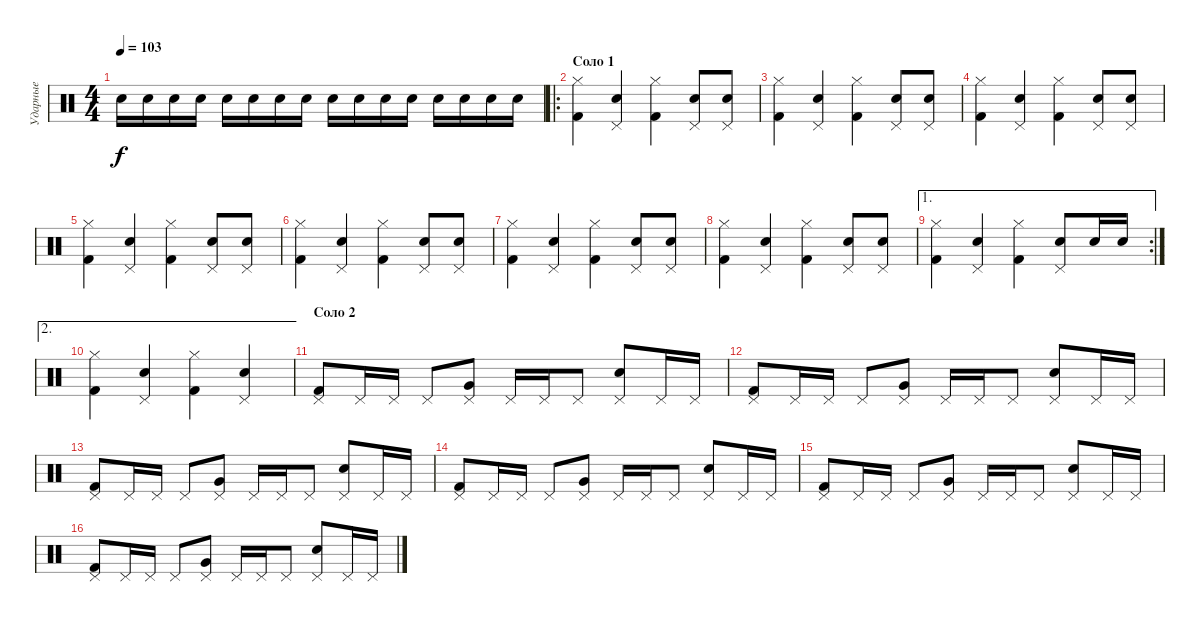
\track ("Ударные" "Ударные") {instrument percussion}
\staff {score}
\articulation defaults
\ts (4 4)
\tempo 103
\clef neutral
\ks c "Snare (hit) 2".16{dy f} "Snare (hit) 2".16 "Snare (hit) 2".16 "Snare (hit) 2".16 "Snare (hit) 2".16 "Snare (hit) 2".16 "Snare (hit) 2".16 "Snare (hit) 2".16 "Snare (hit) 2".16 "Snare (hit) 2".16 "Snare (hit) 2".16 "Snare (hit) 2".16 "Snare (hit) 2".16 "Snare (hit) 2".16 "Snare (hit) 2".16 "Snare (hit) 2".16
|
\ro
\section ("" "Соло 1")
("Hi-Hat (closed)" "Kick (hit) 2").4 ("Pedal Hi-Hat (hit)" "Snare (hit) 2").4 ("Hi-Hat (closed)" "Kick (hit) 2").4 ("Pedal Hi-Hat (hit)" "Snare (hit) 2").8 ("Pedal Hi-Hat (hit)" "Snare (hit) 2").8 |
("Hi-Hat (closed)" "Kick (hit) 2").4 ("Pedal Hi-Hat (hit)" "Snare (hit) 2").4 ("Hi-Hat (closed)" "Kick (hit) 2").4 ("Pedal Hi-Hat (hit)" "Snare (hit) 2").8 ("Pedal Hi-Hat (hit)" "Snare (hit) 2").8 |
("Hi-Hat (closed)" "Kick (hit) 2").4 ("Pedal Hi-Hat (hit)" "Snare (hit) 2").4 ("Hi-Hat (closed)" "Kick (hit) 2").4 ("Pedal Hi-Hat (hit)" "Snare (hit) 2").8 ("Pedal Hi-Hat (hit)" "Snare (hit) 2").8 |
("Hi-Hat (closed)" "Kick (hit) 2").4 ("Pedal Hi-Hat (hit)" "Snare (hit) 2").4 ("Hi-Hat (closed)" "Kick (hit) 2").4 ("Pedal Hi-Hat (hit)" "Snare (hit) 2").8 ("Pedal Hi-Hat (hit)" "Snare (hit) 2").8 |
("Hi-Hat (closed)" "Kick (hit) 2").4 ("Pedal Hi-Hat (hit)" "Snare (hit) 2").4 ("Hi-Hat (closed)" "Kick (hit) 2").4 ("Pedal Hi-Hat (hit)" "Snare (hit) 2").8 ("Pedal Hi-Hat (hit)" "Snare (hit) 2").8 |
("Hi-Hat (closed)" "Kick (hit) 2").4 ("Pedal Hi-Hat (hit)" "Snare (hit) 2").4 ("Hi-Hat (closed)" "Kick (hit) 2").4 ("Pedal Hi-Hat (hit)" "Snare (hit) 2").8 ("Pedal Hi-Hat (hit)" "Snare (hit) 2").8 |
("Hi-Hat (closed)" "Kick (hit) 2").4 ("Pedal Hi-Hat (hit)" "Snare (hit) 2").4 ("Hi-Hat (closed)" "Kick (hit) 2").4 ("Pedal Hi-Hat (hit)" "Snare (hit) 2").8 ("Pedal Hi-Hat (hit)" "Snare (hit) 2").8 |
\ae 1
\rc 2
("Hi-Hat (closed)" "Kick (hit) 2").4 ("Pedal Hi-Hat (hit)" "Snare (hit) 2").4 ("Hi-Hat (closed)" "Kick (hit) 2").4 ("Pedal Hi-Hat (hit)" "Snare (hit) 2").8 "Snare (hit) 2".16 "Snare (hit) 2".16 |
\ae 2
("Hi-Hat (closed)" "Kick (hit) 2").4 ("Pedal Hi-Hat (hit)" "Snare (hit) 2").4 ("Hi-Hat (closed)" "Kick (hit) 2").4 ("Pedal Hi-Hat (hit)" "Snare (hit) 2").4 |
\section ("" "Соло 2")
("Pedal Hi-Hat (hit)" "Kick (hit) 2").8 "Pedal Hi-Hat (hit)".16 "Pedal Hi-Hat (hit)".16 "Pedal Hi-Hat (hit)".8 ("Pedal Hi-Hat (hit)" "Very Low Tom (hit)").8 "Pedal Hi-Hat (hit)".16 "Pedal Hi-Hat (hit)".16 "Pedal Hi-Hat (hit)".8 ("Pedal Hi-Hat (hit)" "Snare (hit) 2").8 "Pedal Hi-Hat (hit)".16 "Pedal Hi-Hat (hit)".16 |
("Pedal Hi-Hat (hit)" "Kick (hit) 2").8 "Pedal Hi-Hat (hit)".16 "Pedal Hi-Hat (hit)".16 "Pedal Hi-Hat (hit)".8 ("Pedal Hi-Hat (hit)" "Very Low Tom (hit)").8 "Pedal Hi-Hat (hit)".16 "Pedal Hi-Hat (hit)".16 "Pedal Hi-Hat (hit)".8 ("Pedal Hi-Hat (hit)" "Snare (hit) 2").8 "Pedal Hi-Hat (hit)".16 "Pedal Hi-Hat (hit)".16 |
("Pedal Hi-Hat (hit)" "Kick (hit) 2").8 "Pedal Hi-Hat (hit)".16 "Pedal Hi-Hat (hit)".16 "Pedal Hi-Hat (hit)".8 ("Pedal Hi-Hat (hit)" "Very Low Tom (hit)").8 "Pedal Hi-Hat (hit)".16 "Pedal Hi-Hat (hit)".16 "Pedal Hi-Hat (hit)".8 ("Pedal Hi-Hat (hit)" "Snare (hit) 2").8 "Pedal Hi-Hat (hit)".16 "Pedal Hi-Hat (hit)".16 |
("Pedal Hi-Hat (hit)" "Kick (hit) 2").8 "Pedal Hi-Hat (hit)".16 "Pedal Hi-Hat (hit)".16 "Pedal Hi-Hat (hit)".8 ("Pedal Hi-Hat (hit)" "Very Low Tom (hit)").8 "Pedal Hi-Hat (hit)".16 "Pedal Hi-Hat (hit)".16 "Pedal Hi-Hat (hit)".8 ("Pedal Hi-Hat (hit)" "Snare (hit) 2").8 "Pedal Hi-Hat (hit)".16 "Pedal Hi-Hat (hit)".16 |
("Pedal Hi-Hat (hit)" "Kick (hit) 2").8 "Pedal Hi-Hat (hit)".16 "Pedal Hi-Hat (hit)".16 "Pedal Hi-Hat (hit)".8 ("Pedal Hi-Hat (hit)" "Very Low Tom (hit)").8 "Pedal Hi-Hat (hit)".16 "Pedal Hi-Hat (hit)".16 "Pedal Hi-Hat (hit)".8 ("Pedal Hi-Hat (hit)" "Snare (hit) 2").8 "Pedal Hi-Hat (hit)".16 "Pedal Hi-Hat (hit)".16 |
("Pedal Hi-Hat (hit)" "Kick (hit) 2").8 "Pedal Hi-Hat (hit)".16 "Pedal Hi-Hat (hit)".16 "Pedal Hi-Hat (hit)".8 ("Pedal Hi-Hat (hit)" "Very Low Tom (hit)").8 "Pedal Hi-Hat (hit)".16 "Pedal Hi-Hat (hit)".16 "Pedal Hi-Hat (hit)".8 ("Pedal Hi-Hat (hit)" "Snare (hit) 2").8 "Pedal Hi-Hat (hit)".16 "Pedal Hi-Hat (hit)".16
